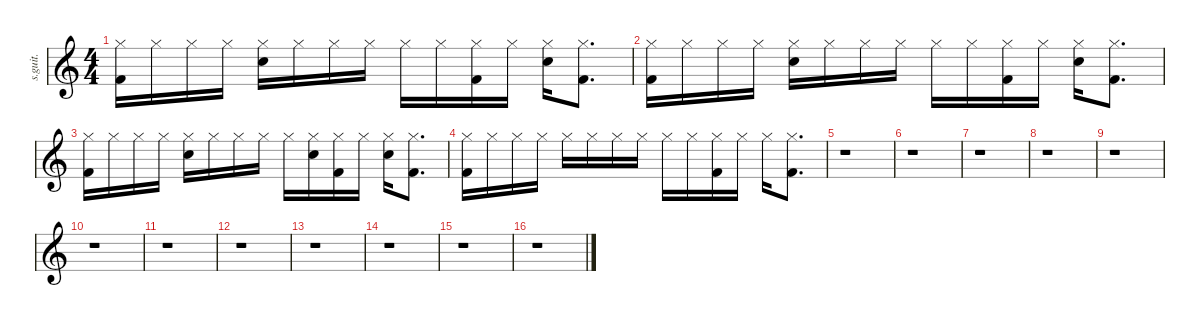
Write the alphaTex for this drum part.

\defaultSystemsLayout 4
\hideDynamics
\bracketExtendMode nobrackets
\track ("" "s.guit.") {instrument percussion}
\staff {score}
\articulation defaults
\ts (4 4)
\tempo (90 hide)
\clef g2
\ks c
("Hi-Hat (closed)" "Kick (hit) 2").16{dy f} "Hi-Hat (closed)".16 "Hi-Hat (closed)".16 "Hi-Hat (closed)".16 ("Hi-Hat (closed)" "Snare (hit) 2").16 "Hi-Hat (closed)".16 "Hi-Hat (closed)".16 "Hi-Hat (closed)".16 "Hi-Hat (closed)".16 "Hi-Hat (closed)".16 ("Hi-Hat (closed)" "Kick (hit) 2").16 "Hi-Hat (closed)".16 ("Hi-Hat (closed)" "Snare (hit) 2").16 ("Hi-Hat (closed)" "Kick (hit) 2").8{d} |
("Hi-Hat (closed)" "Kick (hit) 2").16 "Hi-Hat (closed)".16 "Hi-Hat (closed)".16 "Hi-Hat (closed)".16 ("Hi-Hat (closed)" "Snare (hit) 2").16 "Hi-Hat (closed)".16 "Hi-Hat (closed)".16 "Hi-Hat (closed)".16 "Hi-Hat (closed)".16 "Hi-Hat (closed)".16 ("Hi-Hat (closed)" "Kick (hit) 2").16 "Hi-Hat (closed)".16 ("Hi-Hat (closed)" "Snare (hit) 2").16 ("Hi-Hat (closed)" "Kick (hit) 2").8{d} |
("Hi-Hat (closed)" "Kick (hit) 2").16 "Hi-Hat (closed)".16 "Hi-Hat (closed)".16 "Hi-Hat (closed)".16 ("Hi-Hat (closed)" "Snare (hit) 2").16 "Hi-Hat (closed)".16 "Hi-Hat (closed)".16 "Hi-Hat (closed)".16 "Hi-Hat (closed)".16 ("Hi-Hat (closed)" "Snare (hit) 2").16 ("Hi-Hat (closed)" "Kick (hit) 2").16 "Hi-Hat (closed)".16 ("Hi-Hat (closed)" "Snare (hit) 2").16 ("Hi-Hat (closed)" "Kick (hit) 2").8{d} |
("Hi-Hat (closed)" "Kick (hit) 2").16 "Hi-Hat (closed)".16 "Hi-Hat (closed)".16 "Hi-Hat (closed)".16 "Hi-Hat (closed)".16 "Hi-Hat (closed)".16 "Hi-Hat (closed)".16 "Hi-Hat (closed)".16 "Hi-Hat (closed)".16 "Hi-Hat (closed)".16 ("Hi-Hat (closed)" "Kick (hit) 2").16 "Hi-Hat (closed)".16 "Hi-Hat (closed)".16 ("Hi-Hat (closed)" "Kick (hit) 2").8{d} |
r.1 |
r.1 |
r.1 |
r.1 |
r.1 |
r.1 |
r.1 |
r.1 |
r.1 |
r.1 |
r.1 |
r.1
